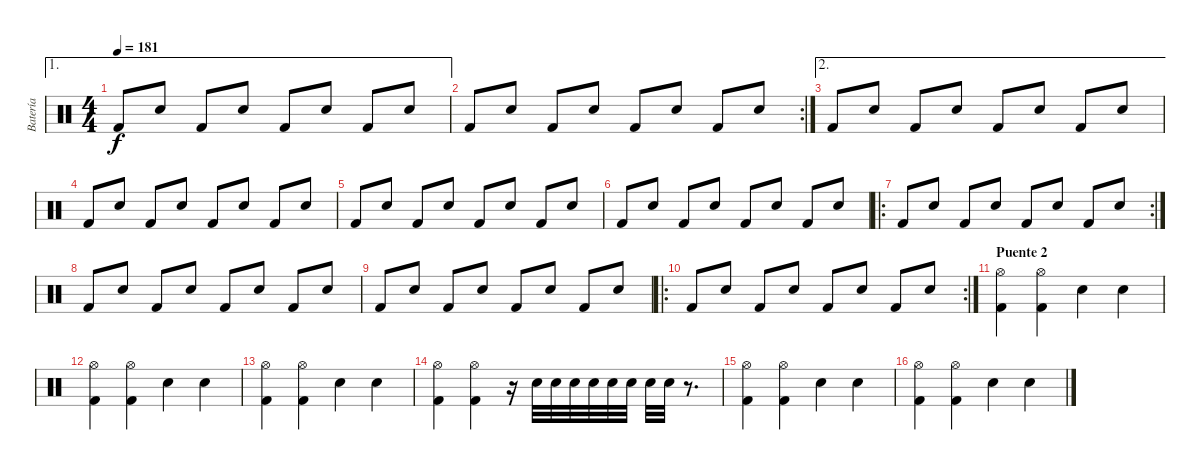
\track ("Batería" "Batería") {instrument percussion}
\staff {score}
\articulation defaults
\ae 1
\ts (4 4)
\tempo 181
\clef neutral
\ks c "Kick (hit) 2".8{dy f} "Electric Snare (hit)".8 "Kick (hit) 2".8 "Electric Snare (hit)".8 "Kick (hit) 2".8 "Electric Snare (hit)".8 "Kick (hit) 2".8 "Electric Snare (hit)".8
|
\rc 2 "Kick (hit) 2".8 "Electric Snare (hit)".8 "Kick (hit) 2".8 "Electric Snare (hit)".8 "Kick (hit) 2".8 "Electric Snare (hit)".8 "Kick (hit) 2".8 "Electric Snare (hit)".8
|
\ae 2 "Kick (hit) 2".8 "Electric Snare (hit)".8 "Kick (hit) 2".8 "Electric Snare (hit)".8 "Kick (hit) 2".8 "Electric Snare (hit)".8 "Kick (hit) 2".8 "Electric Snare (hit)".8
|
"Kick (hit) 2".8 "Electric Snare (hit)".8 "Kick (hit) 2".8 "Electric Snare (hit)".8 "Kick (hit) 2".8 "Electric Snare (hit)".8 "Kick (hit) 2".8 "Electric Snare (hit)".8 |
"Kick (hit) 2".8 "Electric Snare (hit)".8 "Kick (hit) 2".8 "Electric Snare (hit)".8 "Kick (hit) 2".8 "Electric Snare (hit)".8 "Kick (hit) 2".8 "Electric Snare (hit)".8 |
"Kick (hit) 2".8 "Electric Snare (hit)".8 "Kick (hit) 2".8 "Electric Snare (hit)".8 "Kick (hit) 2".8 "Electric Snare (hit)".8 "Kick (hit) 2".8 "Electric Snare (hit)".8 |
\ro
\rc 2 "Kick (hit) 2".8 "Electric Snare (hit)".8 "Kick (hit) 2".8 "Electric Snare (hit)".8 "Kick (hit) 2".8 "Electric Snare (hit)".8 "Kick (hit) 2".8 "Electric Snare (hit)".8
|
"Kick (hit) 2".8 "Electric Snare (hit)".8 "Kick (hit) 2".8 "Electric Snare (hit)".8 "Kick (hit) 2".8 "Electric Snare (hit)".8 "Kick (hit) 2".8 "Electric Snare (hit)".8 |
"Kick (hit) 2".8 "Electric Snare (hit)".8 "Kick (hit) 2".8 "Electric Snare (hit)".8 "Kick (hit) 2".8 "Electric Snare (hit)".8 "Kick (hit) 2".8 "Electric Snare (hit)".8 |
\ro
\rc 2 "Kick (hit) 2".8 "Electric Snare (hit)".8 "Kick (hit) 2".8 "Electric Snare (hit)".8 "Kick (hit) 2".8 "Electric Snare (hit)".8 "Kick (hit) 2".8 "Electric Snare (hit)".8
|
\section ("" "Puente 2")
("Hi-Hat (open)" "Kick (hit) 2").4 ("Hi-Hat (open)" "Kick (hit) 2").4 "Snare (hit) 2".4 "Snare (hit) 2".4 |
("Hi-Hat (open)" "Kick (hit) 2").4 ("Hi-Hat (open)" "Kick (hit) 2").4 "Snare (hit) 2".4 "Snare (hit) 2".4 |
("Hi-Hat (open)" "Kick (hit) 2").4 ("Hi-Hat (open)" "Kick (hit) 2").4 "Snare (hit) 2".4 "Snare (hit) 2".4 |
("Hi-Hat (open)" "Kick (hit) 2").4 ("Hi-Hat (open)" "Kick (hit) 2").4 r.16 "Electric Snare (hit)".32 "Electric Snare (hit)".32 "Electric Snare (hit)".32 "Electric Snare (hit)".32 "Electric Snare (hit)".32 "Electric Snare (hit)".32 "Electric Snare (hit)".32 "Electric Snare (hit)".32 r.8{d} |
("Hi-Hat (open)" "Kick (hit) 2").4 ("Hi-Hat (open)" "Kick (hit) 2").4 "Snare (hit) 2".4 "Snare (hit) 2".4 |
("Hi-Hat (open)" "Kick (hit) 2").4 ("Hi-Hat (open)" "Kick (hit) 2").4 "Snare (hit) 2".4 "Snare (hit) 2".4
